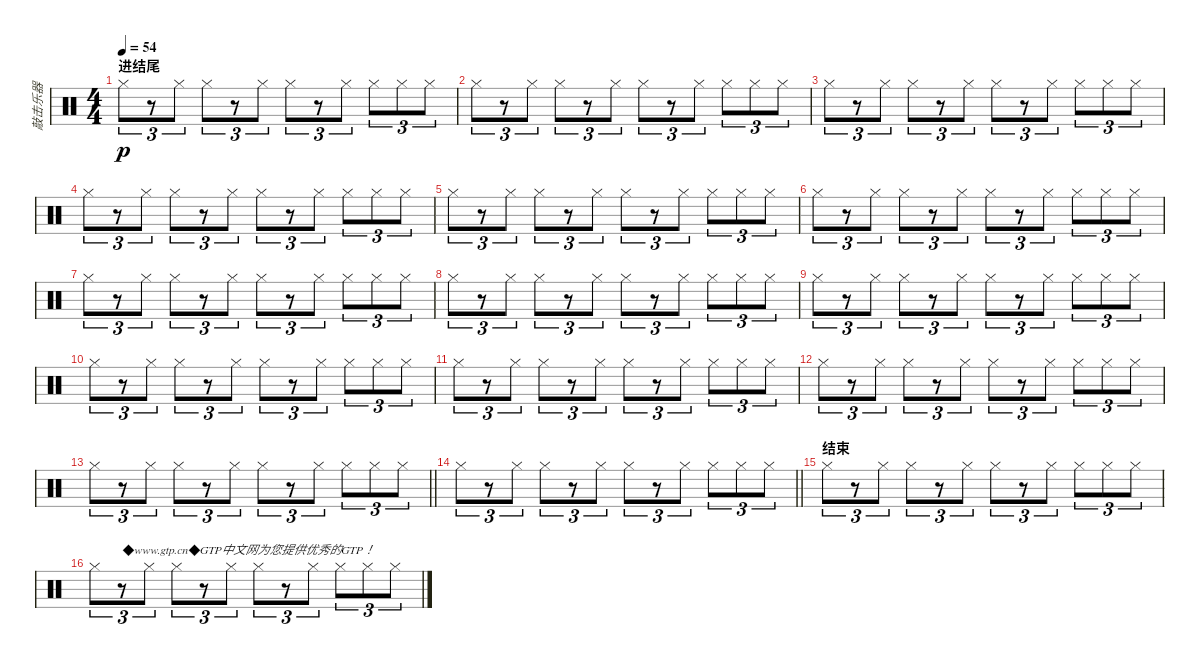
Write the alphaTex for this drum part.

\track ("敲击乐器" "敲击乐器") {instrument percussion}
\staff {score}
\articulation defaults
\ts (4 4)
\section ("" "进结尾")
\tempo 54
\clef neutral
\ks c "Hi-Hat (closed)".8{tu (3 2) dy p}
r.8{tu (3 2)} "Hi-Hat (closed)".8{tu (3 2)} "Hi-Hat (closed)".8{tu (3 2)} r.8{tu (3 2)} "Hi-Hat (closed)".8{tu (3 2)} "Hi-Hat (closed)".8{tu (3 2)} r.8{tu (3 2)} "Hi-Hat (closed)".8{tu (3 2)} "Hi-Hat (closed)".8{tu (3 2)} "Hi-Hat (closed)".8{tu (3 2)} "Hi-Hat (closed)".8{tu (3 2)} |
"Hi-Hat (closed)".8{tu (3 2)} r.8{tu (3 2)} "Hi-Hat (closed)".8{tu (3 2)} "Hi-Hat (closed)".8{tu (3 2)} r.8{tu (3 2)} "Hi-Hat (closed)".8{tu (3 2)} "Hi-Hat (closed)".8{tu (3 2)} r.8{tu (3 2)} "Hi-Hat (closed)".8{tu (3 2)} "Hi-Hat (closed)".8{tu (3 2)} "Hi-Hat (closed)".8{tu (3 2)} "Hi-Hat (closed)".8{tu (3 2)} |
"Hi-Hat (closed)".8{tu (3 2)} r.8{tu (3 2)} "Hi-Hat (closed)".8{tu (3 2)} "Hi-Hat (closed)".8{tu (3 2)} r.8{tu (3 2)} "Hi-Hat (closed)".8{tu (3 2)} "Hi-Hat (closed)".8{tu (3 2)} r.8{tu (3 2)} "Hi-Hat (closed)".8{tu (3 2)} "Hi-Hat (closed)".8{tu (3 2)} "Hi-Hat (closed)".8{tu (3 2)} "Hi-Hat (closed)".8{tu (3 2)} |
"Hi-Hat (closed)".8{tu (3 2)} r.8{tu (3 2)} "Hi-Hat (closed)".8{tu (3 2)} "Hi-Hat (closed)".8{tu (3 2)} r.8{tu (3 2)} "Hi-Hat (closed)".8{tu (3 2)} "Hi-Hat (closed)".8{tu (3 2)} r.8{tu (3 2)} "Hi-Hat (closed)".8{tu (3 2)} "Hi-Hat (closed)".8{tu (3 2)} "Hi-Hat (closed)".8{tu (3 2)} "Hi-Hat (closed)".8{tu (3 2)} |
"Hi-Hat (closed)".8{tu (3 2)} r.8{tu (3 2)} "Hi-Hat (closed)".8{tu (3 2)} "Hi-Hat (closed)".8{tu (3 2)} r.8{tu (3 2)} "Hi-Hat (closed)".8{tu (3 2)} "Hi-Hat (closed)".8{tu (3 2)} r.8{tu (3 2)} "Hi-Hat (closed)".8{tu (3 2)} "Hi-Hat (closed)".8{tu (3 2)} "Hi-Hat (closed)".8{tu (3 2)} "Hi-Hat (closed)".8{tu (3 2)} |
"Hi-Hat (closed)".8{tu (3 2)} r.8{tu (3 2)} "Hi-Hat (closed)".8{tu (3 2)} "Hi-Hat (closed)".8{tu (3 2)} r.8{tu (3 2)} "Hi-Hat (closed)".8{tu (3 2)} "Hi-Hat (closed)".8{tu (3 2)} r.8{tu (3 2)} "Hi-Hat (closed)".8{tu (3 2)} "Hi-Hat (closed)".8{tu (3 2)} "Hi-Hat (closed)".8{tu (3 2)} "Hi-Hat (closed)".8{tu (3 2)} |
"Hi-Hat (closed)".8{tu (3 2)} r.8{tu (3 2)} "Hi-Hat (closed)".8{tu (3 2)} "Hi-Hat (closed)".8{tu (3 2)} r.8{tu (3 2)} "Hi-Hat (closed)".8{tu (3 2)} "Hi-Hat (closed)".8{tu (3 2)} r.8{tu (3 2)} "Hi-Hat (closed)".8{tu (3 2)} "Hi-Hat (closed)".8{tu (3 2)} "Hi-Hat (closed)".8{tu (3 2)} "Hi-Hat (closed)".8{tu (3 2)} |
"Hi-Hat (closed)".8{tu (3 2)} r.8{tu (3 2)} "Hi-Hat (closed)".8{tu (3 2)} "Hi-Hat (closed)".8{tu (3 2)} r.8{tu (3 2)} "Hi-Hat (closed)".8{tu (3 2)} "Hi-Hat (closed)".8{tu (3 2)} r.8{tu (3 2)} "Hi-Hat (closed)".8{tu (3 2)} "Hi-Hat (closed)".8{tu (3 2)} "Hi-Hat (closed)".8{tu (3 2)} "Hi-Hat (closed)".8{tu (3 2)} |
"Hi-Hat (closed)".8{tu (3 2)} r.8{tu (3 2)} "Hi-Hat (closed)".8{tu (3 2)} "Hi-Hat (closed)".8{tu (3 2)} r.8{tu (3 2)} "Hi-Hat (closed)".8{tu (3 2)} "Hi-Hat (closed)".8{tu (3 2)} r.8{tu (3 2)} "Hi-Hat (closed)".8{tu (3 2)} "Hi-Hat (closed)".8{tu (3 2)} "Hi-Hat (closed)".8{tu (3 2)} "Hi-Hat (closed)".8{tu (3 2)} |
"Hi-Hat (closed)".8{tu (3 2)} r.8{tu (3 2)} "Hi-Hat (closed)".8{tu (3 2)} "Hi-Hat (closed)".8{tu (3 2)} r.8{tu (3 2)} "Hi-Hat (closed)".8{tu (3 2)} "Hi-Hat (closed)".8{tu (3 2)} r.8{tu (3 2)} "Hi-Hat (closed)".8{tu (3 2)} "Hi-Hat (closed)".8{tu (3 2)} "Hi-Hat (closed)".8{tu (3 2)} "Hi-Hat (closed)".8{tu (3 2)} |
"Hi-Hat (closed)".8{tu (3 2)} r.8{tu (3 2)} "Hi-Hat (closed)".8{tu (3 2)} "Hi-Hat (closed)".8{tu (3 2)} r.8{tu (3 2)} "Hi-Hat (closed)".8{tu (3 2)} "Hi-Hat (closed)".8{tu (3 2)} r.8{tu (3 2)} "Hi-Hat (closed)".8{tu (3 2)} "Hi-Hat (closed)".8{tu (3 2)} "Hi-Hat (closed)".8{tu (3 2)} "Hi-Hat (closed)".8{tu (3 2)} |
"Hi-Hat (closed)".8{tu (3 2)} r.8{tu (3 2)} "Hi-Hat (closed)".8{tu (3 2)} "Hi-Hat (closed)".8{tu (3 2)} r.8{tu (3 2)} "Hi-Hat (closed)".8{tu (3 2)} "Hi-Hat (closed)".8{tu (3 2)} r.8{tu (3 2)} "Hi-Hat (closed)".8{tu (3 2)} "Hi-Hat (closed)".8{tu (3 2)} "Hi-Hat (closed)".8{tu (3 2)} "Hi-Hat (closed)".8{tu (3 2)} |
\barLineRight lightlight "Hi-Hat (closed)".8{tu (3 2)}
r.8{tu (3 2)} "Hi-Hat (closed)".8{tu (3 2)} "Hi-Hat (closed)".8{tu (3 2)} r.8{tu (3 2)} "Hi-Hat (closed)".8{tu (3 2)} "Hi-Hat (closed)".8{tu (3 2)} r.8{tu (3 2)} "Hi-Hat (closed)".8{tu (3 2)} "Hi-Hat (closed)".8{tu (3 2)} "Hi-Hat (closed)".8{tu (3 2)} "Hi-Hat (closed)".8{tu (3 2)} |
\barLineRight lightlight "Hi-Hat (closed)".8{tu (3 2)}
r.8{tu (3 2)} "Hi-Hat (closed)".8{tu (3 2)} "Hi-Hat (closed)".8{tu (3 2)} r.8{tu (3 2)} "Hi-Hat (closed)".8{tu (3 2)} "Hi-Hat (closed)".8{tu (3 2)} r.8{tu (3 2)} "Hi-Hat (closed)".8{tu (3 2)} "Hi-Hat (closed)".8{tu (3 2)} "Hi-Hat (closed)".8{tu (3 2)} "Hi-Hat (closed)".8{tu (3 2)} |
\section ("" "结束")
"Hi-Hat (closed)".8{tu (3 2)} r.8{tu (3 2)} "Hi-Hat (closed)".8{tu (3 2)} "Hi-Hat (closed)".8{tu (3 2)} r.8{tu (3 2)} "Hi-Hat (closed)".8{tu (3 2)} "Hi-Hat (closed)".8{tu (3 2)} r.8{tu (3 2)} "Hi-Hat (closed)".8{tu (3 2)} "Hi-Hat (closed)".8{tu (3 2)} "Hi-Hat (closed)".8{tu (3 2)} "Hi-Hat (closed)".8{tu (3 2)} |
"Hi-Hat (closed)".8{tu (3 2)} r.8{tu (3 2) txt "◆www.gtp.cn◆GTP中文网为您提供优秀的GTP！"} "Hi-Hat (closed)".8{tu (3 2)} "Hi-Hat (closed)".8{tu (3 2)} r.8{tu (3 2)} "Hi-Hat (closed)".8{tu (3 2)} "Hi-Hat (closed)".8{tu (3 2)} r.8{tu (3 2)} "Hi-Hat (closed)".8{tu (3 2)} "Hi-Hat (closed)".8{tu (3 2)} "Hi-Hat (closed)".8{tu (3 2)} "Hi-Hat (closed)".8{tu (3 2)}
